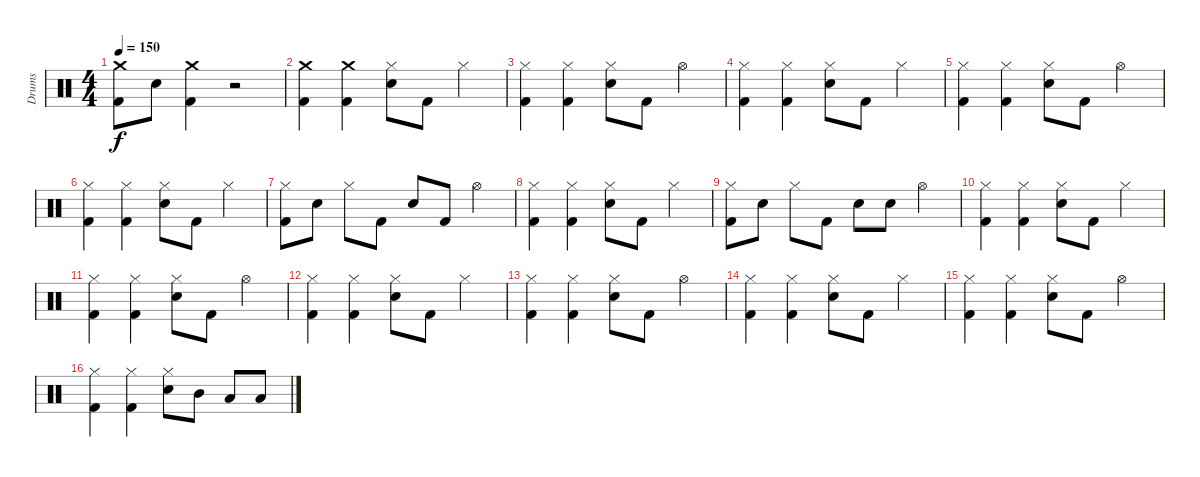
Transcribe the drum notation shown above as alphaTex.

\track ("Drums" "Drums") {instrument percussion}
\staff {score}
\articulation defaults
\ts (4 4)
\tempo 150
\clef neutral
\ks c
("Crash medium (hit)" "Kick (hit) 2").8{dy f} "Snare (hit) 2".8 ("Crash medium (hit)" "Kick (hit) 2").4 r.2 |
("Crash medium (hit)" "Kick (hit) 2").4 ("Crash medium (hit)" "Kick (hit) 2").4 ("Hi-Hat (closed)" "Snare (hit) 2").8 "Kick (hit) 2".8 "Hi-Hat (closed)".4 |
("Hi-Hat (closed)" "Kick (hit) 2").4 ("Hi-Hat (closed)" "Kick (hit) 2").4 ("Hi-Hat (closed)" "Snare (hit) 2").8 "Kick (hit) 2".8 "Hi-Hat (open)".4 |
("Hi-Hat (closed)" "Kick (hit) 2").4 ("Hi-Hat (closed)" "Kick (hit) 2").4 ("Hi-Hat (closed)" "Snare (hit) 2").8 "Kick (hit) 2".8 "Hi-Hat (closed)".4 |
("Hi-Hat (closed)" "Kick (hit) 2").4 ("Hi-Hat (closed)" "Kick (hit) 2").4 ("Hi-Hat (closed)" "Snare (hit) 2").8 "Kick (hit) 2".8 "Hi-Hat (open)".4 |
("Hi-Hat (closed)" "Kick (hit) 2").4 ("Hi-Hat (closed)" "Kick (hit) 2").4 ("Hi-Hat (closed)" "Snare (hit) 2").8 "Kick (hit) 2".8 "Hi-Hat (closed)".4 |
("Hi-Hat (closed)" "Kick (hit) 2").8 "Snare (hit) 2".8 "Hi-Hat (closed)".8 "Kick (hit) 2".8 "Snare (hit) 2".8 "Kick (hit) 2".8 "Hi-Hat (open)".4 |
("Hi-Hat (closed)" "Kick (hit) 2").4 ("Hi-Hat (closed)" "Kick (hit) 2").4 ("Hi-Hat (closed)" "Snare (hit) 2").8 "Kick (hit) 2".8 "Hi-Hat (closed)".4 |
("Hi-Hat (closed)" "Kick (hit) 2").8 "Snare (hit) 2".8 "Hi-Hat (closed)".8 "Kick (hit) 2".8 "Snare (hit) 2".8 "Snare (hit) 2".8 "Hi-Hat (open)".4 |
("Hi-Hat (closed)" "Kick (hit) 2").4 ("Hi-Hat (closed)" "Kick (hit) 2").4 ("Hi-Hat (closed)" "Snare (hit) 2").8 "Kick (hit) 2".8 "Hi-Hat (closed)".4 |
("Hi-Hat (closed)" "Kick (hit) 2").4 ("Hi-Hat (closed)" "Kick (hit) 2").4 ("Hi-Hat (closed)" "Snare (hit) 2").8 "Kick (hit) 2".8 "Hi-Hat (open)".4 |
("Hi-Hat (closed)" "Kick (hit) 2").4 ("Hi-Hat (closed)" "Kick (hit) 2").4 ("Hi-Hat (closed)" "Snare (hit) 2").8 "Kick (hit) 2".8 "Hi-Hat (closed)".4 |
("Hi-Hat (closed)" "Kick (hit) 2").4 ("Hi-Hat (closed)" "Kick (hit) 2").4 ("Hi-Hat (closed)" "Snare (hit) 2").8 "Kick (hit) 2".8 "Hi-Hat (open)".4 |
("Hi-Hat (closed)" "Kick (hit) 2").4 ("Hi-Hat (closed)" "Kick (hit) 2").4 ("Hi-Hat (closed)" "Snare (hit) 2").8 "Kick (hit) 2".8 "Hi-Hat (closed)".4 |
("Hi-Hat (closed)" "Kick (hit) 2").4 ("Hi-Hat (closed)" "Kick (hit) 2").4 ("Hi-Hat (closed)" "Snare (hit) 2").8 "Kick (hit) 2".8 "Hi-Hat (open)".4 |
("Hi-Hat (closed)" "Kick (hit) 2").4 ("Hi-Hat (closed)" "Kick (hit) 2").4 ("Hi-Hat (closed)" "Snare (hit) 2").8 "Mid Tom (hit)".8 "Low Tom (hit)".8 "Low Floor Tom (hit)".8
